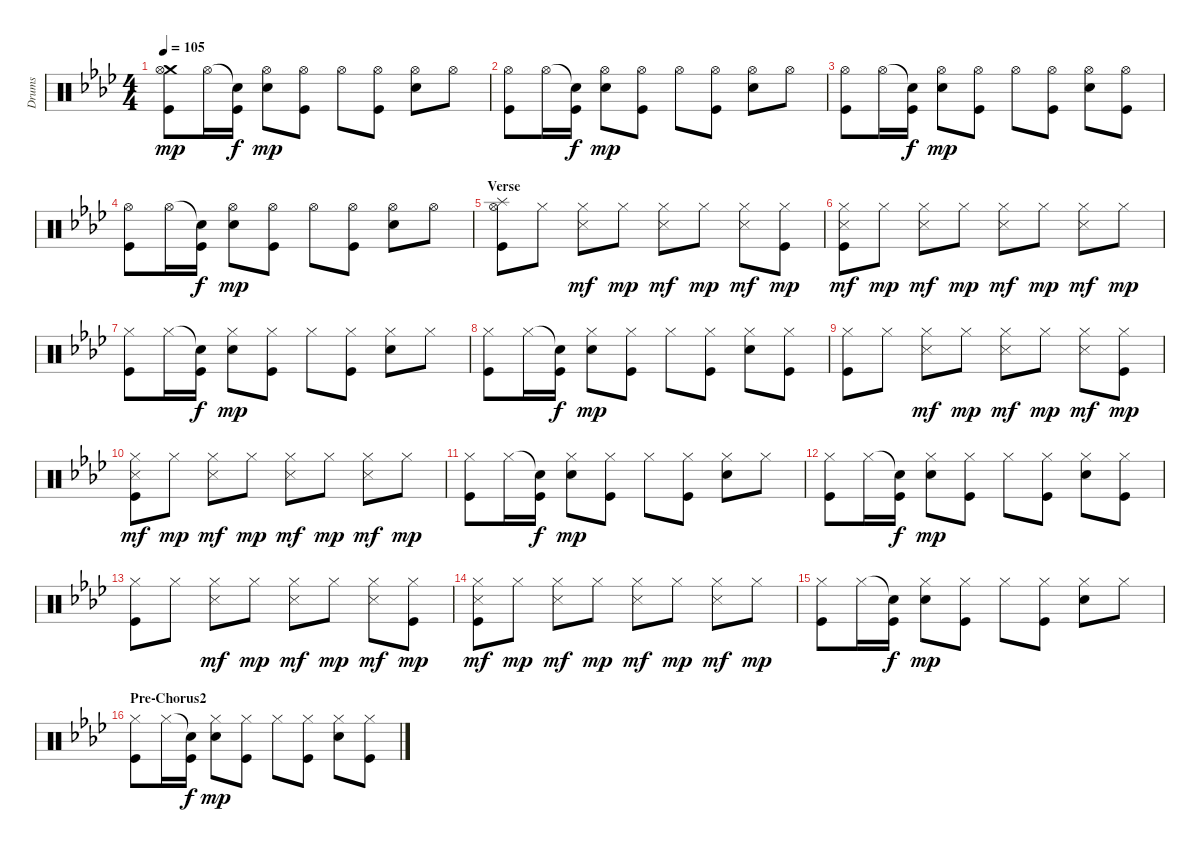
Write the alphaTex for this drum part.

\track ("Drums" "Drums") {instrument percussion}
\staff {score}
\articulation defaults
\ts (4 4)
\tempo 105
\clef neutral
\ks ab
("Crash medium (hit)" "Hi-Hat (open)" "Kick (hit)").8{dy mp} "Hi-Hat (open)".16 ("Snare (hit)"{t} "Kick (hit)").16{dy f} ("Hi-Hat (open)" "Electric Snare (hit)").8{dy mp} ("Hi-Hat (open)" "Kick (hit)").8 "Hi-Hat (open)".8 ("Hi-Hat (open)" "Kick (hit)").8 ("Hi-Hat (open)" "Electric Snare (hit)").8 "Hi-Hat (open)".8 |
("Hi-Hat (open)" "Kick (hit)").8 "Hi-Hat (open)".16 ("Snare (hit)"{t} "Kick (hit)").16{dy f} ("Hi-Hat (open)" "Electric Snare (hit)").8{dy mp} ("Hi-Hat (open)" "Kick (hit)").8 "Hi-Hat (open)".8 ("Hi-Hat (open)" "Kick (hit)").8 ("Hi-Hat (open)" "Electric Snare (hit)").8 "Hi-Hat (open)".8 |
("Hi-Hat (open)" "Kick (hit)").8 "Hi-Hat (open)".16 ("Snare (hit)"{t} "Kick (hit)").16{dy f} ("Hi-Hat (open)" "Electric Snare (hit)").8{dy mp} ("Hi-Hat (open)" "Kick (hit)").8 "Hi-Hat (open)".8 ("Hi-Hat (open)" "Kick (hit)").8 ("Hi-Hat (open)" "Electric Snare (hit)").8 ("Hi-Hat (open)" "Kick (hit)").8 |
("Hi-Hat (open)" "Kick (hit)").8 "Hi-Hat (open)".16 ("Snare (hit)"{t} "Kick (hit)").16{dy f} ("Hi-Hat (open)" "Electric Snare (hit)").8{dy mp} ("Hi-Hat (open)" "Kick (hit)").8 "Hi-Hat (open)".8 ("Hi-Hat (open)" "Kick (hit)").8 ("Hi-Hat (open)" "Electric Snare (hit)").8 "Hi-Hat (open)".8 |
\section ("" "Verse")
("Splash (hit)" "Hi-Hat (open)" "Kick (hit)").8 "Hi-Hat (closed)".8 ("Hi-Hat (closed)" "Metronome (hit)").8{dy mf} "Hi-Hat (closed)".8{dy mp} ("Hi-Hat (closed)" "Metronome (hit)").8{dy mf} "Hi-Hat (closed)".8{dy mp} ("Hi-Hat (closed)" "Metronome (hit)").8{dy mf} ("Hi-Hat (closed)" "Kick (hit)").8{dy mp} |
("Hi-Hat (closed)" "Metronome (hit)" "Kick (hit)").8{dy mf} "Hi-Hat (closed)".8{dy mp} ("Hi-Hat (closed)" "Metronome (hit)").8{dy mf} "Hi-Hat (closed)".8{dy mp} ("Hi-Hat (closed)" "Metronome (hit)").8{dy mf} "Hi-Hat (closed)".8{dy mp} ("Hi-Hat (closed)" "Metronome (hit)").8{dy mf} "Hi-Hat (closed)".8{dy mp} |
("Hi-Hat (closed)" "Kick (hit)").8 "Hi-Hat (closed)".16 ("Snare (hit)"{t} "Kick (hit)").16{dy f} ("Hi-Hat (closed)" "Electric Snare (hit)").8{dy mp} ("Hi-Hat (closed)" "Kick (hit)").8 "Hi-Hat (closed)".8 ("Hi-Hat (closed)" "Kick (hit)").8 ("Hi-Hat (closed)" "Electric Snare (hit)").8 "Hi-Hat (closed)".8 |
("Hi-Hat (closed)" "Kick (hit)").8 "Hi-Hat (closed)".16 ("Snare (hit)"{t} "Kick (hit)").16{dy f} ("Hi-Hat (closed)" "Electric Snare (hit)").8{dy mp} ("Hi-Hat (closed)" "Kick (hit)").8 "Hi-Hat (closed)".8 ("Hi-Hat (closed)" "Kick (hit)").8 ("Hi-Hat (closed)" "Electric Snare (hit)").8 ("Hi-Hat (closed)" "Kick (hit)").8 |
("Hi-Hat (closed)" "Kick (hit)").8 "Hi-Hat (closed)".8 ("Hi-Hat (closed)" "Metronome (hit)").8{dy mf} "Hi-Hat (closed)".8{dy mp} ("Hi-Hat (closed)" "Metronome (hit)").8{dy mf} "Hi-Hat (closed)".8{dy mp} ("Hi-Hat (closed)" "Metronome (hit)").8{dy mf} ("Hi-Hat (closed)" "Kick (hit)").8{dy mp} |
("Hi-Hat (closed)" "Metronome (hit)" "Kick (hit)").8{dy mf} "Hi-Hat (closed)".8{dy mp} ("Hi-Hat (closed)" "Metronome (hit)").8{dy mf} "Hi-Hat (closed)".8{dy mp} ("Hi-Hat (closed)" "Metronome (hit)").8{dy mf} "Hi-Hat (closed)".8{dy mp} ("Hi-Hat (closed)" "Metronome (hit)").8{dy mf} "Hi-Hat (closed)".8{dy mp} |
("Hi-Hat (closed)" "Kick (hit)").8 "Hi-Hat (closed)".16 ("Snare (hit)"{t} "Kick (hit)").16{dy f} ("Hi-Hat (closed)" "Electric Snare (hit)").8{dy mp} ("Hi-Hat (closed)" "Kick (hit)").8 "Hi-Hat (closed)".8 ("Hi-Hat (closed)" "Kick (hit)").8 ("Hi-Hat (closed)" "Electric Snare (hit)").8 "Hi-Hat (closed)".8 |
("Hi-Hat (closed)" "Kick (hit)").8 "Hi-Hat (closed)".16 ("Snare (hit)"{t} "Kick (hit)").16{dy f} ("Hi-Hat (closed)" "Electric Snare (hit)").8{dy mp} ("Hi-Hat (closed)" "Kick (hit)").8 "Hi-Hat (closed)".8 ("Hi-Hat (closed)" "Kick (hit)").8 ("Hi-Hat (closed)" "Electric Snare (hit)").8 ("Hi-Hat (closed)" "Kick (hit)").8 |
("Hi-Hat (closed)" "Kick (hit)").8 "Hi-Hat (closed)".8 ("Hi-Hat (closed)" "Metronome (hit)").8{dy mf} "Hi-Hat (closed)".8{dy mp} ("Hi-Hat (closed)" "Metronome (hit)").8{dy mf} "Hi-Hat (closed)".8{dy mp} ("Hi-Hat (closed)" "Metronome (hit)").8{dy mf} ("Hi-Hat (closed)" "Kick (hit)").8{dy mp} |
("Hi-Hat (closed)" "Metronome (hit)" "Kick (hit)").8{dy mf} "Hi-Hat (closed)".8{dy mp} ("Hi-Hat (closed)" "Metronome (hit)").8{dy mf} "Hi-Hat (closed)".8{dy mp} ("Hi-Hat (closed)" "Metronome (hit)").8{dy mf} "Hi-Hat (closed)".8{dy mp} ("Hi-Hat (closed)" "Metronome (hit)").8{dy mf} "Hi-Hat (closed)".8{dy mp} |
("Hi-Hat (closed)" "Kick (hit)").8 "Hi-Hat (closed)".16 ("Snare (hit)"{t} "Kick (hit)").16{dy f} ("Hi-Hat (closed)" "Electric Snare (hit)").8{dy mp} ("Hi-Hat (closed)" "Kick (hit)").8 "Hi-Hat (closed)".8 ("Hi-Hat (closed)" "Kick (hit)").8 ("Hi-Hat (closed)" "Electric Snare (hit)").8 "Hi-Hat (closed)".8 |
\section ("" "Pre-Chorus2")
("Hi-Hat (closed)" "Kick (hit)").8 "Hi-Hat (closed)".16 ("Snare (hit)"{t} "Kick (hit)").16{dy f} ("Hi-Hat (closed)" "Electric Snare (hit)").8{dy mp} ("Hi-Hat (closed)" "Kick (hit)").8 "Hi-Hat (closed)".8 ("Hi-Hat (closed)" "Kick (hit)").8 ("Hi-Hat (closed)" "Electric Snare (hit)").8 ("Hi-Hat (closed)" "Kick (hit)").8
